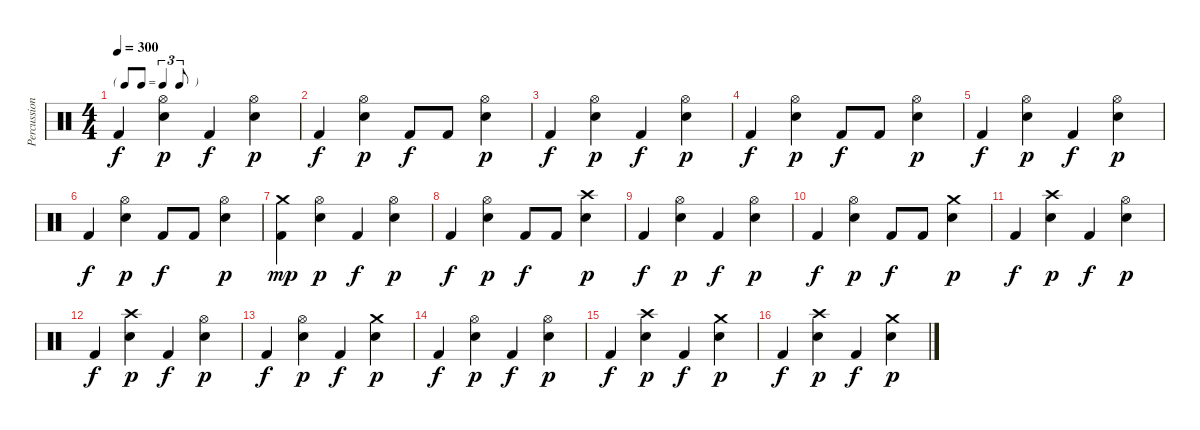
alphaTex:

\track ("Percussions" "Percussion") {instrument percussion}
\staff {score}
\articulation defaults
\ts (4 4)
\tf triplet8th
\tempo 300
\clef neutral
\ks c "Kick (hit) 2".4{dy f}
("Hi-Hat (open)" "Electric Snare (hit)").4{dy p} "Kick (hit) 2".4{dy f} ("Hi-Hat (open)" "Electric Snare (hit)").4{dy p} |
"Kick (hit) 2".4{dy f} ("Hi-Hat (open)" "Electric Snare (hit)").4{dy p} "Kick (hit) 2".8{dy f} "Kick (hit) 2".8 ("Hi-Hat (open)" "Electric Snare (hit)").4{dy p} |
"Kick (hit) 2".4{dy f} ("Hi-Hat (open)" "Electric Snare (hit)").4{dy p} "Kick (hit) 2".4{dy f} ("Hi-Hat (open)" "Electric Snare (hit)").4{dy p} |
"Kick (hit) 2".4{dy f} ("Hi-Hat (open)" "Electric Snare (hit)").4{dy p} "Kick (hit) 2".8{dy f} "Kick (hit) 2".8 ("Hi-Hat (open)" "Electric Snare (hit)").4{dy p} |
"Kick (hit) 2".4{dy f} ("Hi-Hat (open)" "Electric Snare (hit)").4{dy p} "Kick (hit) 2".4{dy f} ("Hi-Hat (open)" "Electric Snare (hit)").4{dy p} |
"Kick (hit) 2".4{dy f} ("Hi-Hat (open)" "Electric Snare (hit)").4{dy p} "Kick (hit) 2".8{dy f} "Kick (hit) 2".8 ("Hi-Hat (open)" "Electric Snare (hit)").4{dy p} |
("Crash medium (hit)" "Kick (hit) 2").4{dy mp} ("Hi-Hat (open)" "Electric Snare (hit)").4{dy p} "Kick (hit) 2".4{dy f} ("Hi-Hat (open)" "Electric Snare (hit)").4{dy p} |
"Kick (hit) 2".4{dy f} ("Hi-Hat (open)" "Electric Snare (hit)").4{dy p} "Kick (hit) 2".8{dy f} "Kick (hit) 2".8 ("Crash high (hit)" "Electric Snare (hit)").4{dy p} |
"Kick (hit) 2".4{dy f} ("Hi-Hat (open)" "Electric Snare (hit)").4{dy p} "Kick (hit) 2".4{dy f} ("Hi-Hat (open)" "Electric Snare (hit)").4{dy p} |
"Kick (hit) 2".4{dy f} ("Hi-Hat (open)" "Electric Snare (hit)").4{dy p} "Kick (hit) 2".8{dy f} "Kick (hit) 2".8 ("Crash medium (hit)" "Electric Snare (hit)").4{dy p} |
"Kick (hit) 2".4{dy f} ("Crash high (hit)" "Electric Snare (hit)").4{dy p} "Kick (hit) 2".4{dy f} ("Hi-Hat (open)" "Electric Snare (hit)").4{dy p} |
"Kick (hit) 2".4{dy f} ("Crash high (hit)" "Electric Snare (hit)").4{dy p} "Kick (hit) 2".4{dy f} ("Hi-Hat (open)" "Electric Snare (hit)").4{dy p} |
"Kick (hit) 2".4{dy f} ("Hi-Hat (open)" "Electric Snare (hit)").4{dy p} "Kick (hit) 2".4{dy f} ("Crash medium (hit)" "Electric Snare (hit)").4{dy p} |
"Kick (hit) 2".4{dy f} ("Hi-Hat (open)" "Electric Snare (hit)").4{dy p} "Kick (hit) 2".4{dy f} ("Hi-Hat (open)" "Electric Snare (hit)").4{dy p} |
"Kick (hit) 2".4{dy f} ("Crash high (hit)" "Electric Snare (hit)").4{dy p} "Kick (hit) 2".4{dy f} ("Crash medium (hit)" "Electric Snare (hit)").4{dy p} |
"Kick (hit) 2".4{dy f} ("Crash high (hit)" "Electric Snare (hit)").4{dy p} "Kick (hit) 2".4{dy f} ("Crash medium (hit)" "Electric Snare (hit)").4{dy p}
